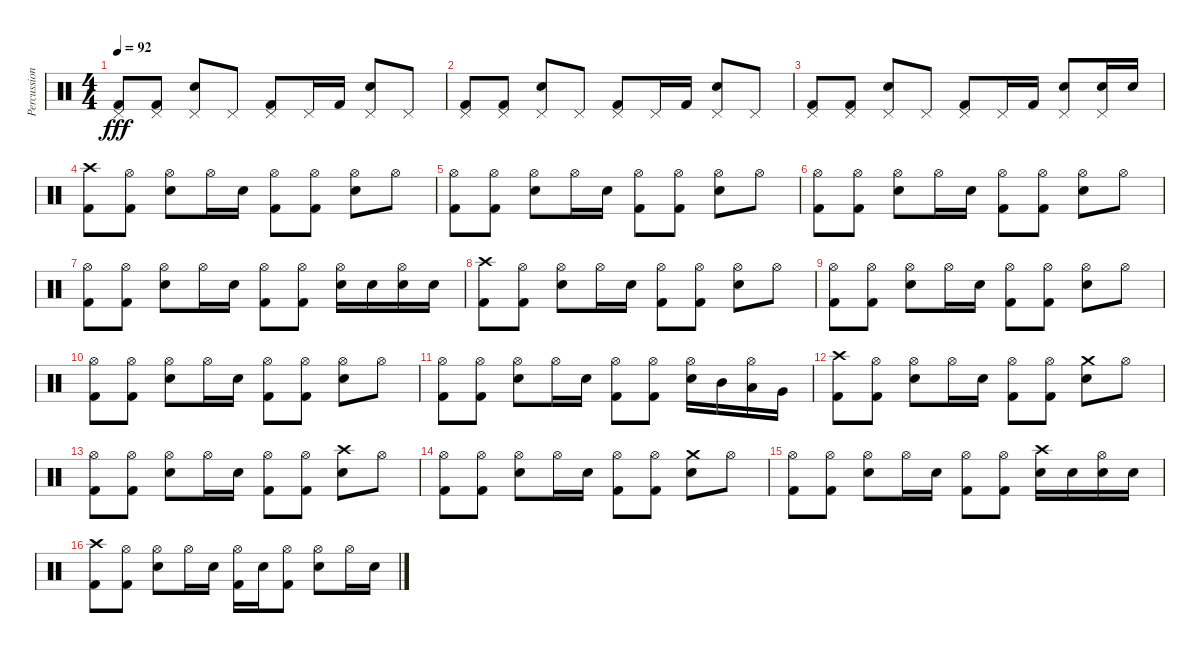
\track ("Percussions" "Percussion") {instrument percussion}
\staff {score}
\articulation defaults
\ts (4 4)
\tempo 92
\clef neutral
\ks c
("Kick (hit) 2" "Pedal Hi-Hat (hit)").8{dy fff} ("Kick (hit) 2" "Pedal Hi-Hat (hit)").8 ("Snare (hit) 2" "Pedal Hi-Hat (hit)").8 "Pedal Hi-Hat (hit)".8 ("Kick (hit) 2" "Pedal Hi-Hat (hit)").8 "Pedal Hi-Hat (hit)".16 "Kick (hit) 2".16 ("Snare (hit) 2" "Pedal Hi-Hat (hit)").8 "Pedal Hi-Hat (hit)".8 |
("Kick (hit) 2" "Pedal Hi-Hat (hit)").8 ("Kick (hit) 2" "Pedal Hi-Hat (hit)").8 ("Snare (hit) 2" "Pedal Hi-Hat (hit)").8 "Pedal Hi-Hat (hit)".8 ("Kick (hit) 2" "Pedal Hi-Hat (hit)").8 "Pedal Hi-Hat (hit)".16 "Kick (hit) 2".16 ("Snare (hit) 2" "Pedal Hi-Hat (hit)").8 "Pedal Hi-Hat (hit)".8 |
("Kick (hit) 2" "Pedal Hi-Hat (hit)").8 ("Kick (hit) 2" "Pedal Hi-Hat (hit)").8 ("Snare (hit) 2" "Pedal Hi-Hat (hit)").8 "Pedal Hi-Hat (hit)".8 ("Kick (hit) 2" "Pedal Hi-Hat (hit)").8 "Pedal Hi-Hat (hit)".16 "Kick (hit) 2".16 ("Snare (hit) 2" "Pedal Hi-Hat (hit)").8 ("Snare (hit) 2" "Pedal Hi-Hat (hit)").16 "Snare (hit) 2".16 |
("Kick (hit) 2" "Crash high (hit)").8 ("Kick (hit) 2" "Hi-Hat (open)").8 ("Snare (hit) 2" "Hi-Hat (open)").8 "Hi-Hat (open)".16 "Snare (hit) 2".16 ("Kick (hit) 2" "Hi-Hat (open)").8 ("Kick (hit) 2" "Hi-Hat (open)").8 ("Snare (hit) 2" "Hi-Hat (open)").8 "Hi-Hat (open)".8 |
("Kick (hit) 2" "Hi-Hat (open)").8 ("Kick (hit) 2" "Hi-Hat (open)").8 ("Snare (hit) 2" "Hi-Hat (open)").8 "Hi-Hat (open)".16 "Snare (hit) 2".16 ("Kick (hit) 2" "Hi-Hat (open)").8 ("Kick (hit) 2" "Hi-Hat (open)").8 ("Snare (hit) 2" "Hi-Hat (open)").8 "Hi-Hat (open)".8 |
("Kick (hit) 2" "Hi-Hat (open)").8 ("Kick (hit) 2" "Hi-Hat (open)").8 ("Snare (hit) 2" "Hi-Hat (open)").8 "Hi-Hat (open)".16 "Snare (hit) 2".16 ("Kick (hit) 2" "Hi-Hat (open)").8 ("Kick (hit) 2" "Hi-Hat (open)").8 ("Snare (hit) 2" "Hi-Hat (open)").8 "Hi-Hat (open)".8 |
("Kick (hit) 2" "Hi-Hat (open)").8 ("Kick (hit) 2" "Hi-Hat (open)").8 ("Snare (hit) 2" "Hi-Hat (open)").8 "Hi-Hat (open)".16 "Snare (hit) 2".16 ("Kick (hit) 2" "Hi-Hat (open)").8 ("Kick (hit) 2" "Hi-Hat (open)").8 ("Snare (hit) 2" "Hi-Hat (open)").16 "Snare (hit) 2".16 ("Snare (hit) 2" "Hi-Hat (open)").16 "Snare (hit) 2".16 |
("Kick (hit) 2" "Crash high (hit)").8 ("Kick (hit) 2" "Hi-Hat (open)").8 ("Snare (hit) 2" "Hi-Hat (open)").8 "Hi-Hat (open)".16 "Snare (hit) 2".16 ("Kick (hit) 2" "Hi-Hat (open)").8 ("Kick (hit) 2" "Hi-Hat (open)").8 ("Snare (hit) 2" "Hi-Hat (open)").8 "Hi-Hat (open)".8 |
("Kick (hit) 2" "Hi-Hat (open)").8 ("Kick (hit) 2" "Hi-Hat (open)").8 ("Snare (hit) 2" "Hi-Hat (open)").8 "Hi-Hat (open)".16 "Snare (hit) 2".16 ("Kick (hit) 2" "Hi-Hat (open)").8 ("Kick (hit) 2" "Hi-Hat (open)").8 ("Snare (hit) 2" "Hi-Hat (open)").8 "Hi-Hat (open)".8 |
("Kick (hit) 2" "Hi-Hat (open)").8 ("Kick (hit) 2" "Hi-Hat (open)").8 ("Snare (hit) 2" "Hi-Hat (open)").8 "Hi-Hat (open)".16 "Snare (hit) 2".16 ("Kick (hit) 2" "Hi-Hat (open)").8 ("Kick (hit) 2" "Hi-Hat (open)").8 ("Snare (hit) 2" "Hi-Hat (open)").8 "Hi-Hat (open)".8 |
("Kick (hit) 2" "Hi-Hat (open)").8 ("Kick (hit) 2" "Hi-Hat (open)").8 ("Snare (hit) 2" "Hi-Hat (open)").8 "Hi-Hat (open)".16 "Snare (hit) 2".16 ("Kick (hit) 2" "Hi-Hat (open)").8 ("Kick (hit) 2" "Hi-Hat (open)").8 ("Snare (hit) 2" "Hi-Hat (open)").16 "Mid Tom (hit)".16 ("Low Tom (hit)" "Hi-Hat (open)").16 "Very Low Tom (hit)".16 |
("Kick (hit) 2" "Crash high (hit)").8 ("Kick (hit) 2" "Hi-Hat (open)").8 ("Snare (hit) 2" "Hi-Hat (open)").8 "Hi-Hat (open)".16 "Snare (hit) 2".16 ("Kick (hit) 2" "Hi-Hat (open)").8 ("Kick (hit) 2" "Hi-Hat (open)").8 ("Snare (hit) 2" "Crash medium (hit)").8 "Hi-Hat (open)".8 |
("Kick (hit) 2" "Hi-Hat (open)").8 ("Kick (hit) 2" "Hi-Hat (open)").8 ("Snare (hit) 2" "Hi-Hat (open)").8 "Hi-Hat (open)".16 "Snare (hit) 2".16 ("Kick (hit) 2" "Hi-Hat (open)").8 ("Kick (hit) 2" "Hi-Hat (open)").8 ("Snare (hit) 2" "Crash high (hit)").8 "Hi-Hat (open)".8 |
("Kick (hit) 2" "Hi-Hat (open)").8 ("Kick (hit) 2" "Hi-Hat (open)").8 ("Snare (hit) 2" "Hi-Hat (open)").8 "Hi-Hat (open)".16 "Snare (hit) 2".16 ("Kick (hit) 2" "Hi-Hat (open)").8 ("Kick (hit) 2" "Hi-Hat (open)").8 ("Snare (hit) 2" "Crash medium (hit)").8 "Hi-Hat (open)".8 |
("Kick (hit) 2" "Hi-Hat (open)").8 ("Kick (hit) 2" "Hi-Hat (open)").8 ("Snare (hit) 2" "Hi-Hat (open)").8 "Hi-Hat (open)".16 "Snare (hit) 2".16 ("Kick (hit) 2" "Hi-Hat (open)").8 ("Kick (hit) 2" "Hi-Hat (open)").8 ("Snare (hit) 2" "Crash high (hit)").16 "Snare (hit) 2".16 ("Snare (hit) 2" "Hi-Hat (open)").16 "Snare (hit) 2".16 |
("Kick (hit) 2" "Crash high (hit)").8 ("Kick (hit) 2" "Hi-Hat (open)").8 ("Snare (hit) 2" "Hi-Hat (open)").8 "Hi-Hat (open)".16 "Snare (hit) 2".16 ("Kick (hit) 2" "Hi-Hat (open)").16 "Snare (hit) 2".16 ("Kick (hit) 2" "Hi-Hat (open)").8 ("Snare (hit) 2" "Hi-Hat (open)").8 "Hi-Hat (open)".16 "Snare (hit) 2".16
